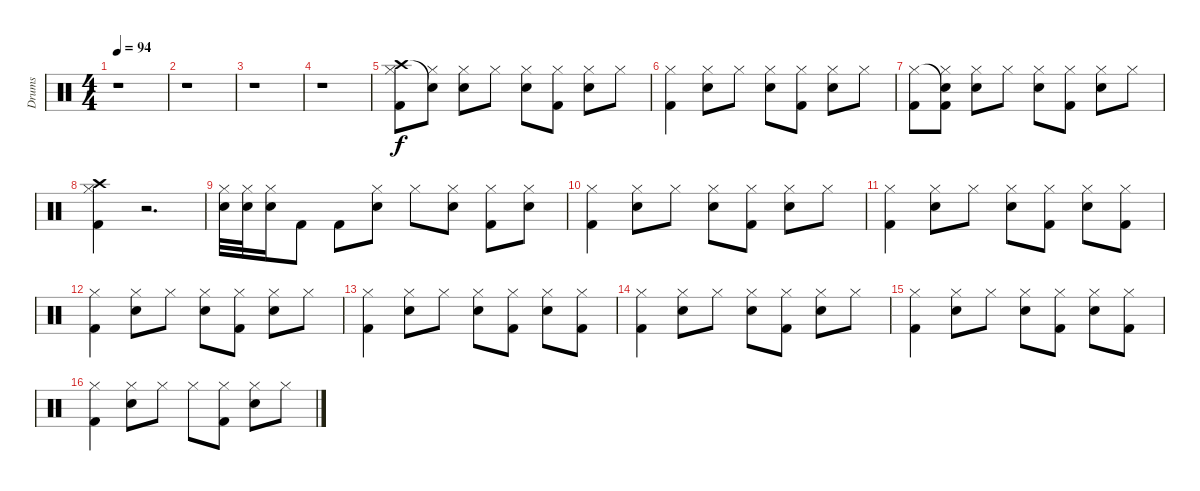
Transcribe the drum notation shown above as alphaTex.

\track ("Drums" "Drums") {instrument percussion}
\staff {score}
\articulation defaults
\ts (4 4)
\tempo 94
\clef neutral
\ks c
r.1{dy f} |
r.1 |
r.1 |
r.1 |
("Crash high (hit)" "Hi-Hat (closed)" "Kick (hit) 2").8 ("Snare (hit)"{t} "Hi-Hat (closed)").8 ("Hi-Hat (closed)" "Electric Snare (hit)").8 "Hi-Hat (closed)".8 ("Hi-Hat (closed)" "Electric Snare (hit)").8 ("Hi-Hat (closed)" "Kick (hit) 2").8 ("Hi-Hat (closed)" "Electric Snare (hit)").8 "Hi-Hat (closed)".8 |
("Hi-Hat (closed)" "Kick (hit) 2").4 ("Hi-Hat (closed)" "Electric Snare (hit)").8 "Hi-Hat (closed)".8 ("Hi-Hat (closed)" "Electric Snare (hit)").8 ("Hi-Hat (closed)" "Kick (hit) 2").8 ("Hi-Hat (closed)" "Electric Snare (hit)").8 "Hi-Hat (closed)".8 |
("Hi-Hat (closed)" "Kick (hit) 2").8 ("Snare (hit)"{t} "Hi-Hat (closed)" "Kick (hit) 2").8 ("Hi-Hat (closed)" "Electric Snare (hit)").8 "Hi-Hat (closed)".8 ("Hi-Hat (closed)" "Electric Snare (hit)").8 ("Hi-Hat (closed)" "Kick (hit) 2").8 ("Hi-Hat (closed)" "Electric Snare (hit)").8 "Hi-Hat (closed)".8 |
("Crash high (hit)" "Hi-Hat (closed)" "Kick (hit) 2").4 r.2{d} |
("Hi-Hat (closed)" "Electric Snare (hit)").32 ("Hi-Hat (closed)" "Electric Snare (hit)").32 ("Hi-Hat (closed)" "Electric Snare (hit)").16 "Kick (hit) 2".8 "Kick (hit) 2".8 ("Hi-Hat (closed)" "Electric Snare (hit)").8 "Hi-Hat (closed)".8 ("Hi-Hat (closed)" "Electric Snare (hit)").8 ("Hi-Hat (closed)" "Kick (hit) 2").8 ("Hi-Hat (closed)" "Electric Snare (hit)").8 |
("Hi-Hat (closed)" "Kick (hit) 2").4 ("Hi-Hat (closed)" "Electric Snare (hit)").8 "Hi-Hat (closed)".8 ("Hi-Hat (closed)" "Electric Snare (hit)").8 ("Hi-Hat (closed)" "Kick (hit) 2").8 ("Hi-Hat (closed)" "Electric Snare (hit)").8 "Hi-Hat (closed)".8 |
("Hi-Hat (closed)" "Kick (hit) 2").4 ("Hi-Hat (closed)" "Electric Snare (hit)").8 "Hi-Hat (closed)".8 ("Hi-Hat (closed)" "Electric Snare (hit)").8 ("Hi-Hat (closed)" "Kick (hit) 2").8 ("Hi-Hat (closed)" "Electric Snare (hit)").8 ("Hi-Hat (closed)" "Kick (hit) 2").8 |
("Hi-Hat (closed)" "Kick (hit) 2").4 ("Hi-Hat (closed)" "Electric Snare (hit)").8 "Hi-Hat (closed)".8 ("Hi-Hat (closed)" "Electric Snare (hit)").8 ("Hi-Hat (closed)" "Kick (hit) 2").8 ("Hi-Hat (closed)" "Electric Snare (hit)").8 "Hi-Hat (closed)".8 |
("Hi-Hat (closed)" "Kick (hit) 2").4 ("Hi-Hat (closed)" "Electric Snare (hit)").8 "Hi-Hat (closed)".8 ("Hi-Hat (closed)" "Electric Snare (hit)").8 ("Hi-Hat (closed)" "Kick (hit) 2").8 ("Hi-Hat (closed)" "Electric Snare (hit)").8 ("Hi-Hat (closed)" "Kick (hit) 2").8 |
("Hi-Hat (closed)" "Kick (hit) 2").4 ("Hi-Hat (closed)" "Electric Snare (hit)").8 "Hi-Hat (closed)".8 ("Hi-Hat (closed)" "Electric Snare (hit)").8 ("Hi-Hat (closed)" "Kick (hit) 2").8 ("Hi-Hat (closed)" "Electric Snare (hit)").8 "Hi-Hat (closed)".8 |
("Hi-Hat (closed)" "Kick (hit) 2").4 ("Hi-Hat (closed)" "Electric Snare (hit)").8 "Hi-Hat (closed)".8 ("Hi-Hat (closed)" "Electric Snare (hit)").8 ("Hi-Hat (closed)" "Kick (hit) 2").8 ("Hi-Hat (closed)" "Electric Snare (hit)").8 ("Hi-Hat (closed)" "Kick (hit) 2").8 |
("Hi-Hat (closed)" "Kick (hit) 2").4 ("Hi-Hat (closed)" "Electric Snare (hit)").8 "Hi-Hat (closed)".8 "Hi-Hat (closed)".8 ("Hi-Hat (closed)" "Kick (hit) 2").8 ("Hi-Hat (closed)" "Electric Snare (hit)").8 "Hi-Hat (closed)".8
